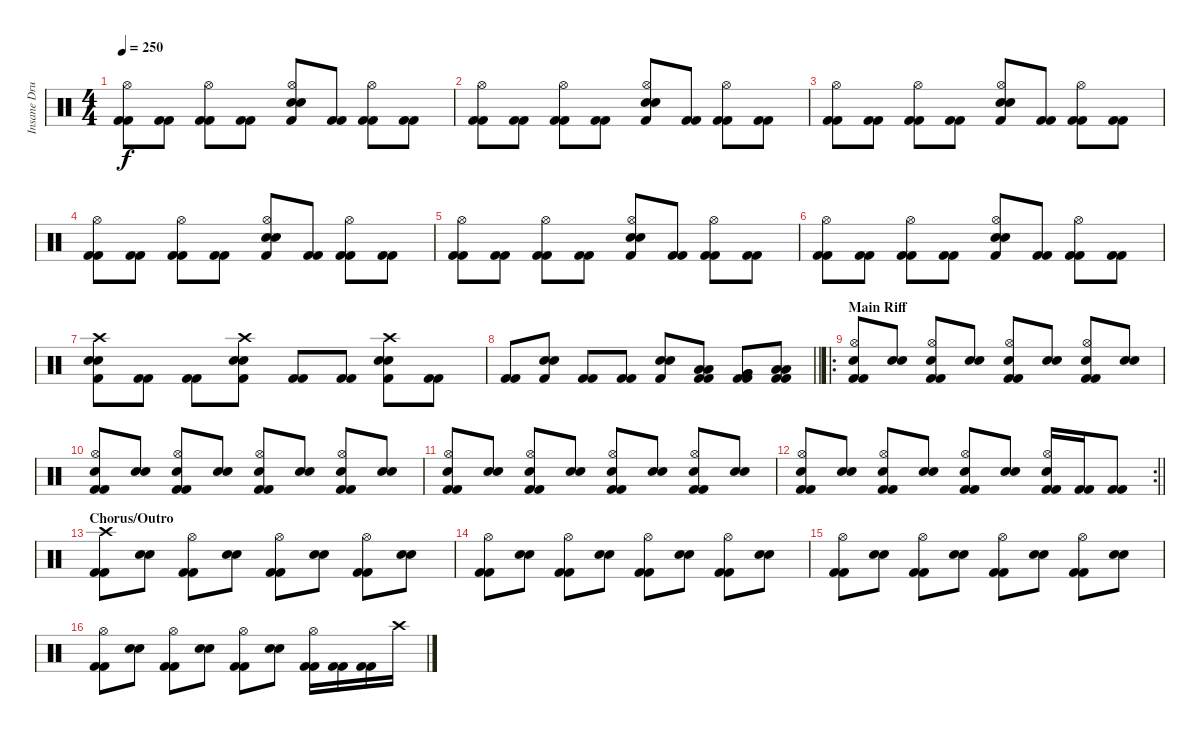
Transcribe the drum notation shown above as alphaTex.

\track ("Insane Drums" "Insane Dru") {instrument percussion}
\staff {score}
\articulation defaults
\ts (4 4)
\tempo 250
\clef neutral
\ks c
("Kick (hit) 2" "Kick (hit) 2" "Hi-Hat (open)").8{dy f} ("Kick (hit) 2" "Kick (hit) 2").8 ("Kick (hit) 2" "Kick (hit) 2" "Hi-Hat (open)").8 ("Kick (hit) 2" "Kick (hit) 2").8 ("Kick (hit) 2" "Electric Snare (hit)" "Electric Snare (hit)" "Hi-Hat (open)").8 ("Kick (hit) 2" "Kick (hit) 2").8 ("Kick (hit) 2" "Kick (hit) 2" "Hi-Hat (open)").8 ("Kick (hit) 2" "Kick (hit) 2").8 |
("Kick (hit) 2" "Kick (hit) 2" "Hi-Hat (open)").8 ("Kick (hit) 2" "Kick (hit) 2").8 ("Kick (hit) 2" "Kick (hit) 2" "Hi-Hat (open)").8 ("Kick (hit) 2" "Kick (hit) 2").8 ("Kick (hit) 2" "Electric Snare (hit)" "Electric Snare (hit)" "Hi-Hat (open)").8 ("Kick (hit) 2" "Kick (hit) 2").8 ("Kick (hit) 2" "Kick (hit) 2" "Hi-Hat (open)").8 ("Kick (hit) 2" "Kick (hit) 2").8 |
("Kick (hit) 2" "Kick (hit) 2" "Hi-Hat (open)").8 ("Kick (hit) 2" "Kick (hit) 2").8 ("Kick (hit) 2" "Kick (hit) 2" "Hi-Hat (open)").8 ("Kick (hit) 2" "Kick (hit) 2").8 ("Kick (hit) 2" "Electric Snare (hit)" "Electric Snare (hit)" "Hi-Hat (open)").8 ("Kick (hit) 2" "Kick (hit) 2").8 ("Kick (hit) 2" "Kick (hit) 2" "Hi-Hat (open)").8 ("Kick (hit) 2" "Kick (hit) 2").8 |
("Kick (hit) 2" "Kick (hit) 2" "Hi-Hat (open)").8 ("Kick (hit) 2" "Kick (hit) 2").8 ("Kick (hit) 2" "Kick (hit) 2" "Hi-Hat (open)").8 ("Kick (hit) 2" "Kick (hit) 2").8 ("Kick (hit) 2" "Electric Snare (hit)" "Electric Snare (hit)" "Hi-Hat (open)").8 ("Kick (hit) 2" "Kick (hit) 2").8 ("Kick (hit) 2" "Kick (hit) 2" "Hi-Hat (open)").8 ("Kick (hit) 2" "Kick (hit) 2").8 |
("Kick (hit) 2" "Kick (hit) 2" "Hi-Hat (open)").8 ("Kick (hit) 2" "Kick (hit) 2").8 ("Kick (hit) 2" "Kick (hit) 2" "Hi-Hat (open)").8 ("Kick (hit) 2" "Kick (hit) 2").8 ("Kick (hit) 2" "Electric Snare (hit)" "Electric Snare (hit)" "Hi-Hat (open)").8 ("Kick (hit) 2" "Kick (hit) 2").8 ("Kick (hit) 2" "Kick (hit) 2" "Hi-Hat (open)").8 ("Kick (hit) 2" "Kick (hit) 2").8 |
("Kick (hit) 2" "Kick (hit) 2" "Hi-Hat (open)").8 ("Kick (hit) 2" "Kick (hit) 2").8 ("Kick (hit) 2" "Kick (hit) 2" "Hi-Hat (open)").8 ("Kick (hit) 2" "Kick (hit) 2").8 ("Kick (hit) 2" "Electric Snare (hit)" "Electric Snare (hit)" "Hi-Hat (open)").8 ("Kick (hit) 2" "Kick (hit) 2").8 ("Kick (hit) 2" "Kick (hit) 2" "Hi-Hat (open)").8 ("Kick (hit) 2" "Kick (hit) 2").8 |
("Kick (hit) 2" "Electric Snare (hit)" "Electric Snare (hit)" "Crash high (hit)").8 ("Kick (hit) 2" "Kick (hit) 2").8 ("Kick (hit) 2" "Kick (hit) 2").8 ("Kick (hit) 2" "Electric Snare (hit)" "Electric Snare (hit)" "Crash high (hit)").8 ("Kick (hit) 2" "Kick (hit) 2").8 ("Kick (hit) 2" "Kick (hit) 2").8 ("Kick (hit) 2" "Electric Snare (hit)" "Electric Snare (hit)" "Crash high (hit)").8 ("Kick (hit) 2" "Kick (hit) 2").8 |
\barLineRight lightlight
("Kick (hit) 2" "Kick (hit) 2").8 ("Kick (hit) 2" "Electric Snare (hit)" "Electric Snare (hit)").8 ("Kick (hit) 2" "Kick (hit) 2").8 ("Kick (hit) 2" "Kick (hit) 2").8 ("Kick (hit) 2" "Electric Snare (hit)" "Electric Snare (hit)").8 ("Kick (hit) 2" "Kick (hit) 2" "Low Tom (hit)" "Low Tom (hit)").8 ("Kick (hit) 2" "Kick (hit) 2" "Very Low Tom (hit)" "Very Low Tom (hit)").8 ("Kick (hit) 2" "Kick (hit) 2" "Low Floor Tom (hit)" "Low Floor Tom (hit)").8 |
\ro
\section ("" "Main Riff")
("Kick (hit) 2" "Kick (hit) 2" "Electric Snare (hit)" "Hi-Hat (open)").8 ("Electric Snare (hit)" "Electric Snare (hit)").8 ("Kick (hit) 2" "Kick (hit) 2" "Electric Snare (hit)" "Hi-Hat (open)").8 ("Electric Snare (hit)" "Electric Snare (hit)").8 ("Kick (hit) 2" "Kick (hit) 2" "Electric Snare (hit)" "Hi-Hat (open)").8 ("Electric Snare (hit)" "Electric Snare (hit)").8 ("Kick (hit) 2" "Kick (hit) 2" "Electric Snare (hit)" "Hi-Hat (open)").8 ("Electric Snare (hit)" "Electric Snare (hit)").8 |
("Kick (hit) 2" "Kick (hit) 2" "Electric Snare (hit)" "Hi-Hat (open)").8 ("Electric Snare (hit)" "Electric Snare (hit)").8 ("Kick (hit) 2" "Kick (hit) 2" "Electric Snare (hit)" "Hi-Hat (open)").8 ("Electric Snare (hit)" "Electric Snare (hit)").8 ("Kick (hit) 2" "Kick (hit) 2" "Electric Snare (hit)" "Hi-Hat (open)").8 ("Electric Snare (hit)" "Electric Snare (hit)").8 ("Kick (hit) 2" "Kick (hit) 2" "Electric Snare (hit)" "Hi-Hat (open)").8 ("Electric Snare (hit)" "Electric Snare (hit)").8 |
("Kick (hit) 2" "Kick (hit) 2" "Electric Snare (hit)" "Hi-Hat (open)").8 ("Electric Snare (hit)" "Electric Snare (hit)").8 ("Kick (hit) 2" "Kick (hit) 2" "Electric Snare (hit)" "Hi-Hat (open)").8 ("Electric Snare (hit)" "Electric Snare (hit)").8 ("Kick (hit) 2" "Kick (hit) 2" "Electric Snare (hit)" "Hi-Hat (open)").8 ("Electric Snare (hit)" "Electric Snare (hit)").8 ("Kick (hit) 2" "Kick (hit) 2" "Electric Snare (hit)" "Hi-Hat (open)").8 ("Electric Snare (hit)" "Electric Snare (hit)").8 |
\rc 2
\barLineRight lightlight
("Kick (hit) 2" "Kick (hit) 2" "Electric Snare (hit)" "Hi-Hat (open)").8 ("Electric Snare (hit)" "Electric Snare (hit)").8 ("Kick (hit) 2" "Kick (hit) 2" "Electric Snare (hit)" "Hi-Hat (open)").8 ("Electric Snare (hit)" "Electric Snare (hit)").8 ("Kick (hit) 2" "Kick (hit) 2" "Electric Snare (hit)" "Hi-Hat (open)").8 ("Electric Snare (hit)" "Electric Snare (hit)").8 ("Kick (hit) 2" "Kick (hit) 2" "Electric Snare (hit)" "Hi-Hat (open)").16 ("Kick (hit) 2" "Kick (hit) 2").16 ("Kick (hit) 2" "Kick (hit) 2").8 |
\section ("" "Chorus/Outro")
("Kick (hit) 2" "Kick (hit) 2" "Crash high (hit)").8 ("Electric Snare (hit)" "Electric Snare (hit)").8 ("Kick (hit) 2" "Kick (hit) 2" "Hi-Hat (open)").8 ("Electric Snare (hit)" "Electric Snare (hit)").8 ("Kick (hit) 2" "Kick (hit) 2" "Hi-Hat (open)").8 ("Electric Snare (hit)" "Electric Snare (hit)").8 ("Kick (hit) 2" "Kick (hit) 2" "Hi-Hat (open)").8 ("Electric Snare (hit)" "Electric Snare (hit)").8 |
("Kick (hit) 2" "Kick (hit) 2" "Hi-Hat (open)").8 ("Electric Snare (hit)" "Electric Snare (hit)").8 ("Kick (hit) 2" "Kick (hit) 2" "Hi-Hat (open)").8 ("Electric Snare (hit)" "Electric Snare (hit)").8 ("Kick (hit) 2" "Kick (hit) 2" "Hi-Hat (open)").8 ("Electric Snare (hit)" "Electric Snare (hit)").8 ("Kick (hit) 2" "Kick (hit) 2" "Hi-Hat (open)").8 ("Electric Snare (hit)" "Electric Snare (hit)").8 |
("Kick (hit) 2" "Kick (hit) 2" "Hi-Hat (open)").8 ("Electric Snare (hit)" "Electric Snare (hit)").8 ("Kick (hit) 2" "Kick (hit) 2" "Hi-Hat (open)").8 ("Electric Snare (hit)" "Electric Snare (hit)").8 ("Kick (hit) 2" "Kick (hit) 2" "Hi-Hat (open)").8 ("Electric Snare (hit)" "Electric Snare (hit)").8 ("Kick (hit) 2" "Kick (hit) 2" "Hi-Hat (open)").8 ("Electric Snare (hit)" "Electric Snare (hit)").8 |
("Kick (hit) 2" "Kick (hit) 2" "Hi-Hat (open)").8 ("Electric Snare (hit)" "Electric Snare (hit)").8 ("Kick (hit) 2" "Kick (hit) 2" "Hi-Hat (open)").8 ("Electric Snare (hit)" "Electric Snare (hit)").8 ("Kick (hit) 2" "Kick (hit) 2" "Hi-Hat (open)").8 ("Electric Snare (hit)" "Electric Snare (hit)").8 ("Kick (hit) 2" "Kick (hit) 2" "Hi-Hat (open)").16 ("Kick (hit) 2" "Kick (hit) 2").16 ("Kick (hit) 2" "Kick (hit) 2").16 "Crash high (hit)".16
